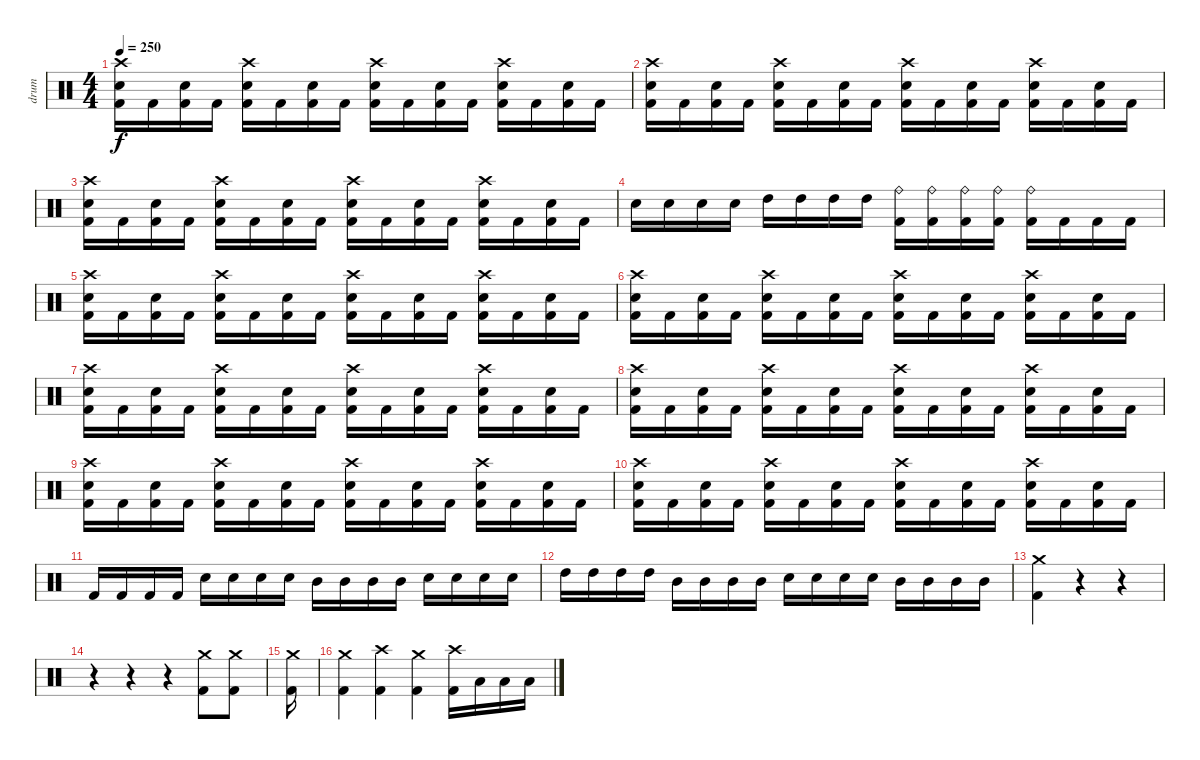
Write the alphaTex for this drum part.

\track ("drum" "drum") {instrument percussion}
\staff {score}
\articulation defaults
\ts (4 4)
\tempo 250
\clef neutral
\ks c
("Crash high (hit)" "Snare (hit) 2" "Kick (hit) 2").16{dy f} "Kick (hit) 2".16 ("Snare (hit) 2" "Kick (hit) 2").16 "Kick (hit) 2".16 ("Crash high (hit)" "Snare (hit) 2" "Kick (hit) 2").16 "Kick (hit) 2".16 ("Snare (hit) 2" "Kick (hit) 2").16 "Kick (hit) 2".16 ("Crash high (hit)" "Snare (hit) 2" "Kick (hit) 2").16 "Kick (hit) 2".16 ("Snare (hit) 2" "Kick (hit) 2").16 "Kick (hit) 2".16 ("Crash high (hit)" "Snare (hit) 2" "Kick (hit) 2").16 "Kick (hit) 2".16 ("Snare (hit) 2" "Kick (hit) 2").16 "Kick (hit) 2".16 |
("Crash high (hit)" "Snare (hit) 2" "Kick (hit) 2").16 "Kick (hit) 2".16 ("Snare (hit) 2" "Kick (hit) 2").16 "Kick (hit) 2".16 ("Crash high (hit)" "Snare (hit) 2" "Kick (hit) 2").16 "Kick (hit) 2".16 ("Snare (hit) 2" "Kick (hit) 2").16 "Kick (hit) 2".16 ("Crash high (hit)" "Snare (hit) 2" "Kick (hit) 2").16 "Kick (hit) 2".16 ("Snare (hit) 2" "Kick (hit) 2").16 "Kick (hit) 2".16 ("Crash high (hit)" "Snare (hit) 2" "Kick (hit) 2").16 "Kick (hit) 2".16 ("Snare (hit) 2" "Kick (hit) 2").16 "Kick (hit) 2".16 |
("Crash high (hit)" "Snare (hit) 2" "Kick (hit) 2").16 "Kick (hit) 2".16 ("Snare (hit) 2" "Kick (hit) 2").16 "Kick (hit) 2".16 ("Crash high (hit)" "Snare (hit) 2" "Kick (hit) 2").16 "Kick (hit) 2".16 ("Snare (hit) 2" "Kick (hit) 2").16 "Kick (hit) 2".16 ("Crash high (hit)" "Snare (hit) 2" "Kick (hit) 2").16 "Kick (hit) 2".16 ("Snare (hit) 2" "Kick (hit) 2").16 "Kick (hit) 2".16 ("Crash high (hit)" "Snare (hit) 2" "Kick (hit) 2").16 "Kick (hit) 2".16 ("Snare (hit) 2" "Kick (hit) 2").16 "Kick (hit) 2".16 |
"Snare (hit) 2".16 "Snare (hit) 2".16 "Snare (hit) 2".16 "Snare (hit) 2".16 "High Tom (hit)".16 "High Tom (hit)".16 "High Tom (hit)".16 "High Tom (hit)".16 ("Ride (bell)" "Kick (hit) 2").16 ("Ride (bell)" "Kick (hit) 2").16 ("Ride (bell)" "Kick (hit) 2").16 ("Ride (bell)" "Kick (hit) 2").16 ("Ride (bell)" "Kick (hit) 2").16 "Kick (hit) 2".16 "Kick (hit) 2".16 "Kick (hit) 2".16 |
("Crash high (hit)" "Snare (hit) 2" "Kick (hit) 2").16 "Kick (hit) 2".16 ("Snare (hit) 2" "Kick (hit) 2").16 "Kick (hit) 2".16 ("Crash high (hit)" "Snare (hit) 2" "Kick (hit) 2").16 "Kick (hit) 2".16 ("Snare (hit) 2" "Kick (hit) 2").16 "Kick (hit) 2".16 ("Crash high (hit)" "Snare (hit) 2" "Kick (hit) 2").16 "Kick (hit) 2".16 ("Snare (hit) 2" "Kick (hit) 2").16 "Kick (hit) 2".16 ("Crash high (hit)" "Snare (hit) 2" "Kick (hit) 2").16 "Kick (hit) 2".16 ("Snare (hit) 2" "Kick (hit) 2").16 "Kick (hit) 2".16 |
("Crash high (hit)" "Snare (hit) 2" "Kick (hit) 2").16 "Kick (hit) 2".16 ("Snare (hit) 2" "Kick (hit) 2").16 "Kick (hit) 2".16 ("Crash high (hit)" "Snare (hit) 2" "Kick (hit) 2").16 "Kick (hit) 2".16 ("Snare (hit) 2" "Kick (hit) 2").16 "Kick (hit) 2".16 ("Crash high (hit)" "Snare (hit) 2" "Kick (hit) 2").16 "Kick (hit) 2".16 ("Snare (hit) 2" "Kick (hit) 2").16 "Kick (hit) 2".16 ("Crash high (hit)" "Snare (hit) 2" "Kick (hit) 2").16 "Kick (hit) 2".16 ("Snare (hit) 2" "Kick (hit) 2").16 "Kick (hit) 2".16 |
("Crash high (hit)" "Snare (hit) 2" "Kick (hit) 2").16 "Kick (hit) 2".16 ("Snare (hit) 2" "Kick (hit) 2").16 "Kick (hit) 2".16 ("Crash high (hit)" "Snare (hit) 2" "Kick (hit) 2").16 "Kick (hit) 2".16 ("Snare (hit) 2" "Kick (hit) 2").16 "Kick (hit) 2".16 ("Crash high (hit)" "Snare (hit) 2" "Kick (hit) 2").16 "Kick (hit) 2".16 ("Snare (hit) 2" "Kick (hit) 2").16 "Kick (hit) 2".16 ("Crash high (hit)" "Snare (hit) 2" "Kick (hit) 2").16 "Kick (hit) 2".16 ("Snare (hit) 2" "Kick (hit) 2").16 "Kick (hit) 2".16 |
("Crash high (hit)" "Snare (hit) 2" "Kick (hit) 2").16 "Kick (hit) 2".16 ("Snare (hit) 2" "Kick (hit) 2").16 "Kick (hit) 2".16 ("Crash high (hit)" "Snare (hit) 2" "Kick (hit) 2").16 "Kick (hit) 2".16 ("Snare (hit) 2" "Kick (hit) 2").16 "Kick (hit) 2".16 ("Crash high (hit)" "Snare (hit) 2" "Kick (hit) 2").16 "Kick (hit) 2".16 ("Snare (hit) 2" "Kick (hit) 2").16 "Kick (hit) 2".16 ("Crash high (hit)" "Snare (hit) 2" "Kick (hit) 2").16 "Kick (hit) 2".16 ("Snare (hit) 2" "Kick (hit) 2").16 "Kick (hit) 2".16 |
("Crash high (hit)" "Snare (hit) 2" "Kick (hit) 2").16 "Kick (hit) 2".16 ("Snare (hit) 2" "Kick (hit) 2").16 "Kick (hit) 2".16 ("Crash high (hit)" "Snare (hit) 2" "Kick (hit) 2").16 "Kick (hit) 2".16 ("Snare (hit) 2" "Kick (hit) 2").16 "Kick (hit) 2".16 ("Crash high (hit)" "Snare (hit) 2" "Kick (hit) 2").16 "Kick (hit) 2".16 ("Snare (hit) 2" "Kick (hit) 2").16 "Kick (hit) 2".16 ("Crash high (hit)" "Snare (hit) 2" "Kick (hit) 2").16 "Kick (hit) 2".16 ("Snare (hit) 2" "Kick (hit) 2").16 "Kick (hit) 2".16 |
("Crash high (hit)" "Snare (hit) 2" "Kick (hit) 2").16 "Kick (hit) 2".16 ("Snare (hit) 2" "Kick (hit) 2").16 "Kick (hit) 2".16 ("Crash high (hit)" "Snare (hit) 2" "Kick (hit) 2").16 "Kick (hit) 2".16 ("Snare (hit) 2" "Kick (hit) 2").16 "Kick (hit) 2".16 ("Crash high (hit)" "Snare (hit) 2" "Kick (hit) 2").16 "Kick (hit) 2".16 ("Snare (hit) 2" "Kick (hit) 2").16 "Kick (hit) 2".16 ("Crash high (hit)" "Snare (hit) 2" "Kick (hit) 2").16 "Kick (hit) 2".16 ("Snare (hit) 2" "Kick (hit) 2").16 "Kick (hit) 2".16 |
"Kick (hit) 2".16 "Kick (hit) 2".16 "Kick (hit) 2".16 "Kick (hit) 2".16 "Snare (hit) 2".16 "Snare (hit) 2".16 "Snare (hit) 2".16 "Snare (hit) 2".16 "Mid Tom (hit)".16 "Mid Tom (hit)".16 "Mid Tom (hit)".16 "Mid Tom (hit)".16 "Snare (hit) 2".16 "Snare (hit) 2".16 "Snare (hit) 2".16 "Snare (hit) 2".16 |
"High Tom (hit)".16 "High Tom (hit)".16 "High Tom (hit)".16 "High Tom (hit)".16 "Mid Tom (hit)".16 "Mid Tom (hit)".16 "Mid Tom (hit)".16 "Mid Tom (hit)".16 "Snare (hit) 2".16 "Snare (hit) 2".16 "Snare (hit) 2".16 "Snare (hit) 2".16 "Mid Tom (hit)".16 "Mid Tom (hit)".16 "Mid Tom (hit)".16 "Mid Tom (hit)".16 |
("Crash medium (hit)" "Kick (hit) 2").4 r.4 r.4 |
r.4 r.4 r.4 ("Crash medium (hit)" "Kick (hit) 2").8 ("Crash medium (hit)" "Kick (hit) 2").8 |
("Crash medium (hit)" "Kick (hit) 2").16 |
("Crash medium (hit)" "Kick (hit) 2").4 ("Crash high (hit)" "Kick (hit) 2").4 ("Crash medium (hit)" "Kick (hit) 2").4 ("Crash high (hit)" "Kick (hit) 2").16 "Low Tom (hit)".16 "Low Tom (hit)".16 "Low Tom (hit)".16
